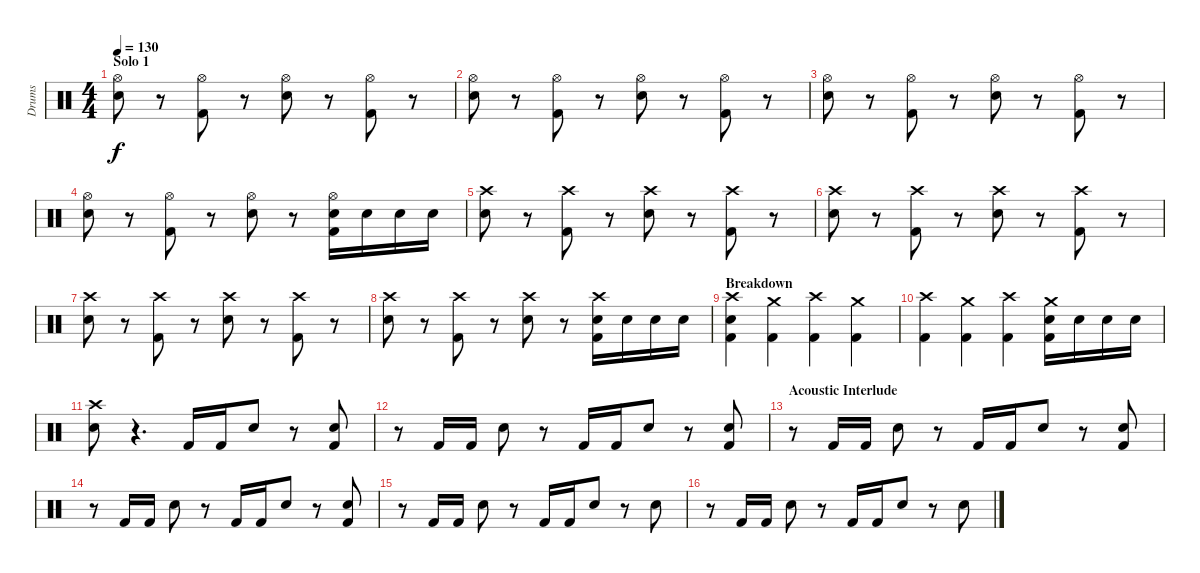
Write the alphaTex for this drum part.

\track ("Drums" "Drums") {instrument percussion}
\staff {score}
\articulation defaults
\ts (4 4)
\section ("" "Solo 1")
\tempo 130
\clef neutral
\ks c
("Hi-Hat (open)" "Electric Snare (hit)").8{dy f} r.8 ("Hi-Hat (open)" "Kick (hit) 2").8 r.8 ("Hi-Hat (open)" "Electric Snare (hit)").8 r.8 ("Hi-Hat (open)" "Kick (hit) 2").8 r.8 |
("Hi-Hat (open)" "Electric Snare (hit)").8 r.8 ("Hi-Hat (open)" "Kick (hit) 2").8 r.8 ("Hi-Hat (open)" "Electric Snare (hit)").8 r.8 ("Hi-Hat (open)" "Kick (hit) 2").8 r.8 |
("Hi-Hat (open)" "Electric Snare (hit)").8 r.8 ("Hi-Hat (open)" "Kick (hit) 2").8 r.8 ("Hi-Hat (open)" "Electric Snare (hit)").8 r.8 ("Hi-Hat (open)" "Kick (hit) 2").8 r.8 |
("Hi-Hat (open)" "Electric Snare (hit)").8 r.8 ("Hi-Hat (open)" "Kick (hit) 2").8 r.8 ("Hi-Hat (open)" "Electric Snare (hit)").8 r.8 ("Hi-Hat (open)" "Electric Snare (hit)" "Kick (hit) 2").16 "Electric Snare (hit)".16 "Electric Snare (hit)".16 "Electric Snare (hit)".16 |
("Crash high (hit)" "Electric Snare (hit)").8 r.8 ("Crash high (hit)" "Kick (hit) 2").8 r.8 ("Crash high (hit)" "Electric Snare (hit)").8 r.8 ("Crash high (hit)" "Kick (hit) 2").8 r.8 |
("Crash high (hit)" "Electric Snare (hit)").8 r.8 ("Crash high (hit)" "Kick (hit) 2").8 r.8 ("Crash high (hit)" "Electric Snare (hit)").8 r.8 ("Crash high (hit)" "Kick (hit) 2").8 r.8 |
("Crash high (hit)" "Electric Snare (hit)").8 r.8 ("Crash high (hit)" "Kick (hit) 2").8 r.8 ("Crash high (hit)" "Electric Snare (hit)").8 r.8 ("Crash high (hit)" "Kick (hit) 2").8 r.8 |
("Crash high (hit)" "Electric Snare (hit)").8 r.8 ("Crash high (hit)" "Kick (hit) 2").8 r.8 ("Crash high (hit)" "Electric Snare (hit)").8 r.8 ("Crash high (hit)" "Electric Snare (hit)" "Kick (hit) 2").16 "Electric Snare (hit)".16 "Electric Snare (hit)".16 "Electric Snare (hit)".16 |
\section ("" "Breakdown")
("Crash high (hit)" "Electric Snare (hit)" "Kick (hit) 2").4 ("Crash medium (hit)" "Kick (hit) 2").4 ("Crash high (hit)" "Kick (hit) 2").4 ("Crash medium (hit)" "Kick (hit) 2").4 |
("Crash high (hit)" "Kick (hit) 2").4 ("Crash medium (hit)" "Kick (hit) 2").4 ("Crash high (hit)" "Kick (hit) 2").4 ("Crash medium (hit)" "Electric Snare (hit)" "Kick (hit) 2").16 "Electric Snare (hit)".16 "Electric Snare (hit)".16 "Electric Snare (hit)".16 |
("Crash high (hit)" "Electric Snare (hit)").8 r.4{d} "Kick (hit) 2".16 "Kick (hit) 2".16 "Electric Snare (hit)".8 r.8 ("Electric Snare (hit)" "Kick (hit) 2").8 |
r.8 "Kick (hit) 2".16 "Kick (hit) 2".16 "Electric Snare (hit)".8 r.8 "Kick (hit) 2".16 "Kick (hit) 2".16 "Electric Snare (hit)".8 r.8 ("Electric Snare (hit)" "Kick (hit) 2").8 |
\section ("" "Acoustic Interlude")
r.8 "Kick (hit) 2".16 "Kick (hit) 2".16 "Electric Snare (hit)".8 r.8 "Kick (hit) 2".16 "Kick (hit) 2".16 "Electric Snare (hit)".8 r.8 ("Electric Snare (hit)" "Kick (hit) 2").8 |
r.8 "Kick (hit) 2".16 "Kick (hit) 2".16 "Electric Snare (hit)".8 r.8 "Kick (hit) 2".16 "Kick (hit) 2".16 "Electric Snare (hit)".8 r.8 ("Electric Snare (hit)" "Kick (hit) 2").8 |
r.8 "Kick (hit) 2".16 "Kick (hit) 2".16 "Electric Snare (hit)".8 r.8 "Kick (hit) 2".16 "Kick (hit) 2".16 "Electric Snare (hit)".8 r.8 "Electric Snare (hit)".8 |
r.8 "Kick (hit) 2".16 "Kick (hit) 2".16 "Electric Snare (hit)".8 r.8 "Kick (hit) 2".16 "Kick (hit) 2".16 "Electric Snare (hit)".8 r.8 "Electric Snare (hit)".8
